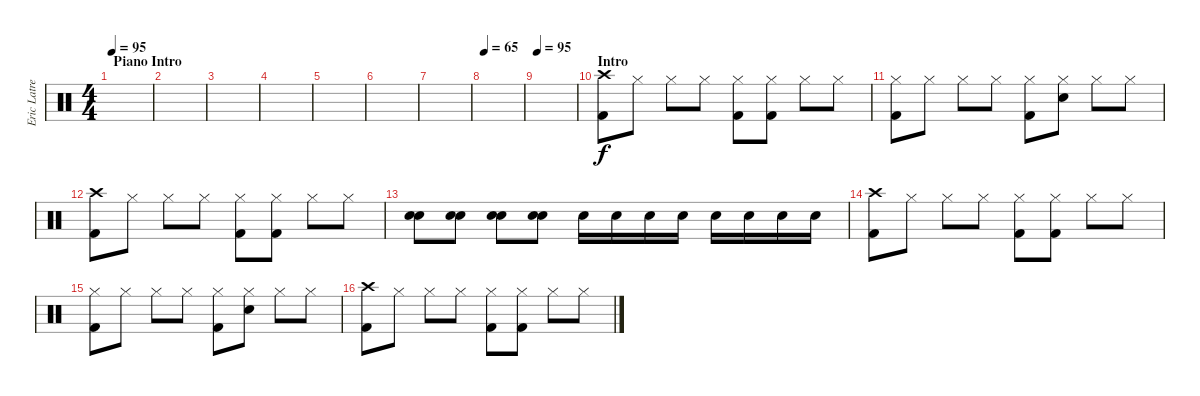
\track ("Eric Latreille" "Eric Latre") {instrument percussion}
\staff {score}
\articulation defaults
\ts (4 4)
\section ("" "Piano Intro")
\tempo 95
\clef neutral
\ks c
|
|
|
|
|
|
|
\tempo 65
|
\tempo 95
|
\section ("" "Intro")
("Crash high (hit)" "Kick (hit) 2").8 "Hi-Hat (closed)".8 "Hi-Hat (closed)".8 "Hi-Hat (closed)".8 ("Hi-Hat (closed)" "Kick (hit) 2").8 ("Hi-Hat (closed)" "Kick (hit) 2").8 "Hi-Hat (closed)".8 "Hi-Hat (closed)".8 |
("Hi-Hat (closed)" "Kick (hit) 2").8 "Hi-Hat (closed)".8 "Hi-Hat (closed)".8 "Hi-Hat (closed)".8 ("Hi-Hat (closed)" "Kick (hit) 2").8 ("Hi-Hat (closed)" "Snare (hit) 2").8 "Hi-Hat (closed)".8 "Hi-Hat (closed)".8 |
("Crash high (hit)" "Kick (hit) 2").8 "Hi-Hat (closed)".8 "Hi-Hat (closed)".8 "Hi-Hat (closed)".8 ("Hi-Hat (closed)" "Kick (hit) 2").8 ("Hi-Hat (closed)" "Kick (hit) 2").8 "Hi-Hat (closed)".8 "Hi-Hat (closed)".8 |
("Snare (hit) 2" "Snare (hit) 2").8 ("Snare (hit) 2" "Snare (hit) 2").8 ("Snare (hit) 2" "Snare (hit) 2").8 ("Snare (hit) 2" "Snare (hit) 2").8 "Snare (hit) 2".16 "Snare (hit) 2".16 "Snare (hit) 2".16 "Snare (hit) 2".16 "Snare (hit) 2".16 "Snare (hit) 2".16 "Snare (hit) 2".16 "Snare (hit) 2".16 |
("Crash high (hit)" "Kick (hit) 2").8 "Hi-Hat (closed)".8 "Hi-Hat (closed)".8 "Hi-Hat (closed)".8 ("Hi-Hat (closed)" "Kick (hit) 2").8 ("Hi-Hat (closed)" "Kick (hit) 2").8 "Hi-Hat (closed)".8 "Hi-Hat (closed)".8 |
("Hi-Hat (closed)" "Kick (hit) 2").8 "Hi-Hat (closed)".8 "Hi-Hat (closed)".8 "Hi-Hat (closed)".8 ("Hi-Hat (closed)" "Kick (hit) 2").8 ("Hi-Hat (closed)" "Snare (hit) 2").8 "Hi-Hat (closed)".8 "Hi-Hat (closed)".8 |
("Crash high (hit)" "Kick (hit) 2").8 "Hi-Hat (closed)".8 "Hi-Hat (closed)".8 "Hi-Hat (closed)".8 ("Hi-Hat (closed)" "Kick (hit) 2").8 ("Hi-Hat (closed)" "Kick (hit) 2").8 "Hi-Hat (closed)".8 "Hi-Hat (closed)".8
